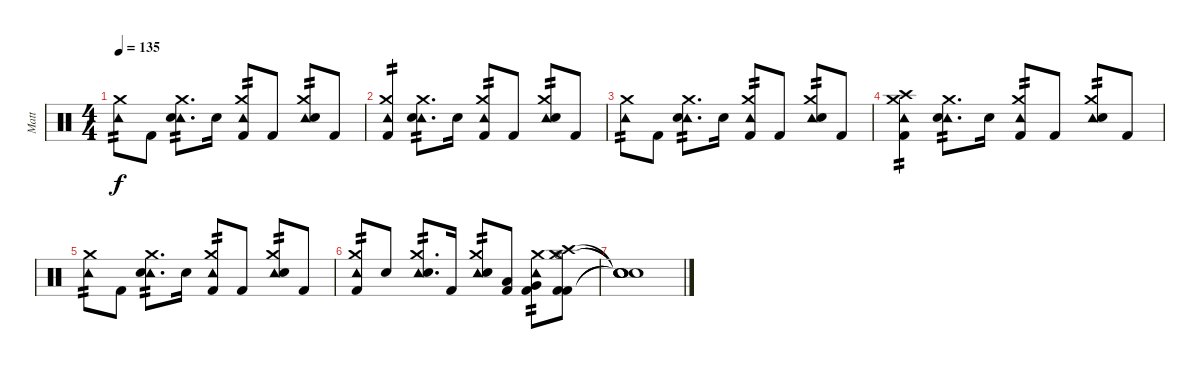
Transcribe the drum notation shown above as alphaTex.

\track ("Matt" "Matt") {instrument percussion}
\staff {score}
\articulation defaults
\ts (4 4)
\tempo 135
\clef neutral
\ks c
("Tambourine (hit)" "Crash medium (hit)").8{tp 2 dy f} "Kick (hit) 2".8 ("Tambourine (hit)" "Crash medium (hit)" "Snare (hit) 2").8{d tp 2} "Snare (hit) 2".16 ("Tambourine (hit)" "Crash medium (hit)" "Kick (hit) 2").8{tp 2} "Kick (hit) 2".8 ("Tambourine (hit)" "Crash medium (hit)" "Snare (hit) 2").8{tp 2} "Kick (hit) 2".8 |
("Tambourine (hit)" "Crash medium (hit)" "Kick (hit) 2").4{tp 2} ("Tambourine (hit)" "Crash medium (hit)" "Snare (hit) 2").8{d tp 2} "Snare (hit) 2".16 ("Tambourine (hit)" "Crash medium (hit)" "Kick (hit) 2").8{tp 2} "Kick (hit) 2".8 ("Tambourine (hit)" "Crash medium (hit)" "Snare (hit) 2").8{tp 2} "Kick (hit) 2".8 |
("Tambourine (hit)" "Crash medium (hit)").8{tp 2} "Kick (hit) 2".8 ("Tambourine (hit)" "Crash medium (hit)" "Snare (hit) 2").8{d tp 2} "Snare (hit) 2".16 ("Tambourine (hit)" "Crash medium (hit)" "Kick (hit) 2").8{tp 2} "Kick (hit) 2".8 ("Tambourine (hit)" "Crash medium (hit)" "Snare (hit) 2").8{tp 2} "Kick (hit) 2".8 |
("Tambourine (hit)" "Crash high (hit)" "Crash medium (hit)" "Kick (hit) 2").4{tp 2} ("Tambourine (hit)" "Crash medium (hit)" "Snare (hit) 2").8{d tp 2} "Snare (hit) 2".16 ("Tambourine (hit)" "Crash medium (hit)" "Kick (hit) 2").8{tp 2} "Kick (hit) 2".8 ("Tambourine (hit)" "Crash medium (hit)" "Snare (hit) 2").8{tp 2} "Kick (hit) 2".8 |
("Tambourine (hit)" "Crash medium (hit)").8{tp 2} "Kick (hit) 2".8 ("Tambourine (hit)" "Crash medium (hit)" "Snare (hit) 2").8{d tp 2} "Snare (hit) 2".16 ("Tambourine (hit)" "Crash medium (hit)" "Kick (hit) 2").8{tp 2} "Kick (hit) 2".8 ("Tambourine (hit)" "Crash medium (hit)" "Snare (hit) 2").8{tp 2} "Kick (hit) 2".8 |
("Tambourine (hit)" "Crash medium (hit)" "Kick (hit) 2").8{tp 2} "Snare (hit) 2".8 ("Tambourine (hit)" "Crash medium (hit)" "Snare (hit) 2").8{d tp 2} "Kick (hit) 2".16 ("Tambourine (hit)" "Crash medium (hit)" "Snare (hit) 2").8{tp 2} ("Kick (hit) 2" "Low Tom (hit)").8 ("Tambourine (hit)" "Crash medium (hit)" "Kick (hit) 2" "Very Low Tom (hit)").8{tp 2} ("Crash medium (hit)" "Crash high (hit)" "Hi-Hat (open)" "Kick (hit) 2" "Kick (hit) 2").8 |
("Snare (hit)"{t} "Snare (hit)"{t} "Snare (hit)"{t} "Snare (hit)"{t} "Snare (hit)"{t}).1
